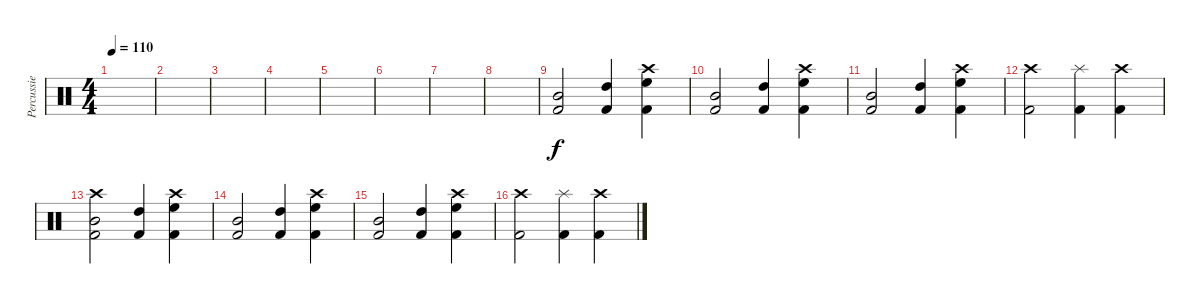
\track ("Percussie" "Percussie") {instrument percussion}
\staff {score}
\articulation defaults
\ts (4 4)
\tempo 110
\clef neutral
\ks c
|
|
|
|
|
|
|
|
("Mid Tom (hit)" "Kick (hit) 2").2 ("High Tom (hit)" "Kick (hit) 2").4 ("Crash high (hit)" "High Floor Tom (hit)" "Kick (hit) 2").4 |
("Mid Tom (hit)" "Kick (hit) 2").2 ("High Tom (hit)" "Kick (hit) 2").4 ("Crash high (hit)" "High Floor Tom (hit)" "Kick (hit) 2").4 |
("Mid Tom (hit)" "Kick (hit) 2").2 ("High Tom (hit)" "Kick (hit) 2").4 ("Crash high (hit)" "High Floor Tom (hit)" "Kick (hit) 2").4 |
("Crash high (hit)" "Kick (hit) 2").2 ("Splash (hit)" "Kick (hit) 2").4 ("Crash high (hit)" "Kick (hit) 2").4 |
("Crash high (hit)" "Mid Tom (hit)" "Kick (hit) 2").2 ("High Tom (hit)" "Kick (hit) 2").4 ("Crash high (hit)" "High Floor Tom (hit)" "Kick (hit) 2").4 |
("Mid Tom (hit)" "Kick (hit) 2").2 ("High Tom (hit)" "Kick (hit) 2").4 ("Crash high (hit)" "High Floor Tom (hit)" "Kick (hit) 2").4 |
("Mid Tom (hit)" "Kick (hit) 2").2 ("High Tom (hit)" "Kick (hit) 2").4 ("Crash high (hit)" "High Floor Tom (hit)" "Kick (hit) 2").4 |
("Crash high (hit)" "Kick (hit) 2").2 ("Splash (hit)" "Kick (hit) 2").4 ("Crash high (hit)" "Kick (hit) 2").4
